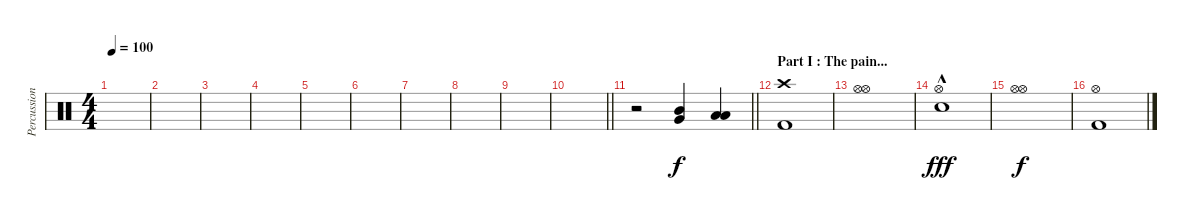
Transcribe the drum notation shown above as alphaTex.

\track ("Percussion" "Percussion") {instrument percussion}
\staff {score}
\articulation defaults
\ts (4 4)
\tempo 100
\clef neutral
\ks c
|
|
|
|
|
|
|
|
|
\barLineRight lightlight
|
\barLineRight lightlight
r.2 ("Mid Tom (hit)" "Very Low Tom (hit)").4 ("Low Tom (hit)" "Low Floor Tom (hit)").4 |
\section ("" "Part I : The pain...")
("Crash high (hit)" "Kick (hit) 2").1 |
("Hi-Hat (open)" "Hi-Hat (open)").1 |
("Hi-Hat (open)" "Snare (hit) 2"{hac}).1{dy fff} |
("Hi-Hat (open)" "Hi-Hat (open)").1{dy f} |
("Hi-Hat (open)" "Kick (hit) 2").1
